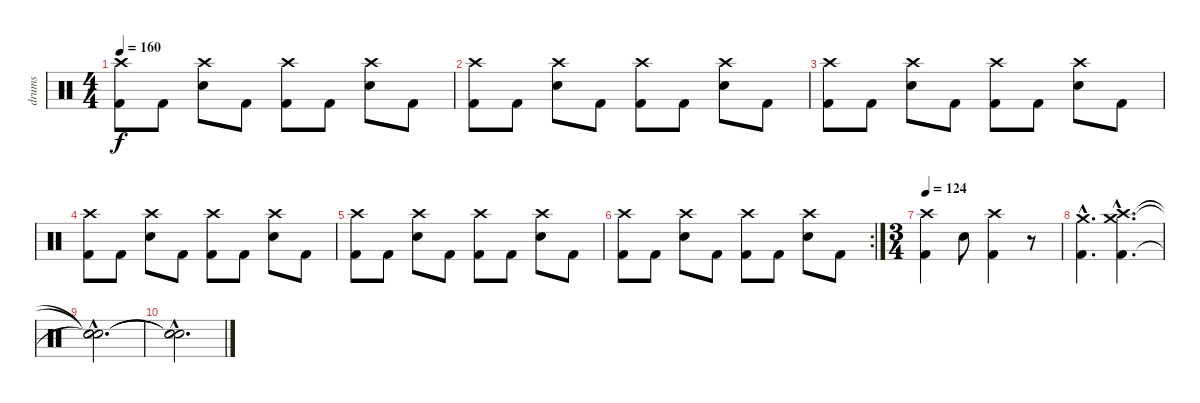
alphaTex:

\track ("drums" "drums") {instrument percussion}
\staff {score}
\articulation defaults
\ts (4 4)
\tempo 160
\clef neutral
\ks c
("Kick (hit) 2" "Crash high (hit)").8{dy f} "Kick (hit) 2".8 ("Crash high (hit)" "Snare (hit) 2").8 "Kick (hit) 2".8 ("Kick (hit) 2" "Crash high (hit)").8 "Kick (hit) 2".8 ("Crash high (hit)" "Snare (hit) 2").8 "Kick (hit) 2".8 |
("Kick (hit) 2" "Crash high (hit)").8 "Kick (hit) 2".8 ("Crash high (hit)" "Snare (hit) 2").8 "Kick (hit) 2".8 ("Kick (hit) 2" "Crash high (hit)").8 "Kick (hit) 2".8 ("Crash high (hit)" "Snare (hit) 2").8 "Kick (hit) 2".8 |
("Kick (hit) 2" "Crash high (hit)").8 "Kick (hit) 2".8 ("Crash high (hit)" "Snare (hit) 2").8 "Kick (hit) 2".8 ("Kick (hit) 2" "Crash high (hit)").8 "Kick (hit) 2".8 ("Crash high (hit)" "Snare (hit) 2").8 "Kick (hit) 2".8 |
("Kick (hit) 2" "Crash high (hit)").8 "Kick (hit) 2".8 ("Crash high (hit)" "Snare (hit) 2").8 "Kick (hit) 2".8 ("Kick (hit) 2" "Crash high (hit)").8 "Kick (hit) 2".8 ("Crash high (hit)" "Snare (hit) 2").8 "Kick (hit) 2".8 |
("Kick (hit) 2" "Crash high (hit)").8 "Kick (hit) 2".8 ("Crash high (hit)" "Snare (hit) 2").8 "Kick (hit) 2".8 ("Kick (hit) 2" "Crash high (hit)").8 "Kick (hit) 2".8 ("Crash high (hit)" "Snare (hit) 2").8 "Kick (hit) 2".8 |
\rc 2
("Kick (hit) 2" "Crash high (hit)").8 "Kick (hit) 2".8 ("Crash high (hit)" "Snare (hit) 2").8 "Kick (hit) 2".8 ("Kick (hit) 2" "Crash high (hit)").8 "Kick (hit) 2".8 ("Crash high (hit)" "Snare (hit) 2").8 "Kick (hit) 2".8 |
\ts (3 4)
\tempo 124
("Kick (hit) 2" "Crash high (hit)").4 "Snare (hit) 2".8 ("Kick (hit) 2" "Crash high (hit)").4 r.8 |
("Kick (hit) 2"{hac} "Crash medium (hit)"{hac}).4{d} ("Kick (hit) 2"{hac} "Crash high (hit)"{hac} "Crash medium (hit)"{hac}).4{d} |
("Snare (hit)"{hac t} "Snare (hit)"{hac t} "Snare (hit)"{hac t}).2{d} |
("Snare (hit)"{hac t} "Snare (hit)"{hac t} "Snare (hit)"{hac t}).2{d}
